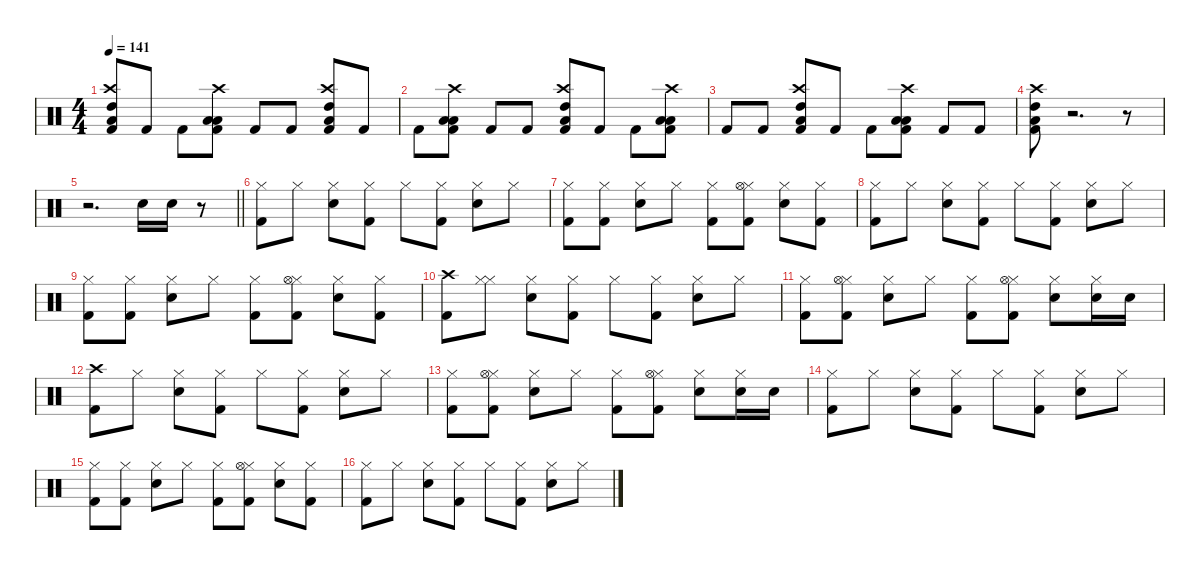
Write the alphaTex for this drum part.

\defaultSystemsLayout 4
\hideDynamics
\bracketExtendMode nobrackets
\singleTrackTrackNamePolicy hidden
\multiTrackTrackNamePolicy hidden
\otherSystemsTrackNameOrientation horizontal
\track ("Drum" "drm.") {instrument percussion}
\staff {score}
\articulation defaults
\ts (4 4)
\tempo 141
\clef neutral
\ks c
("Kick (hit) 2" "High Tom (hit)" "Low Tom (hit)" "Crash high (hit)").8{dy fff beam Up} "Kick (hit) 2".8{dy ff beam Up} "Kick (hit) 2".8{beam Down} ("Kick (hit) 2" "Low Tom (hit)" "Low Floor Tom (hit)" "Crash high (hit)").8{dy fff beam Down} "Kick (hit) 2".8{dy ff beam Up} "Kick (hit) 2".8{beam Up} ("Kick (hit) 2" "High Tom (hit)" "Crash high (hit)" "Low Tom (hit)").8{dy fff beam Up} "Kick (hit) 2".8{dy ff beam Up} |
"Kick (hit) 2".8{beam Down} ("Kick (hit) 2" "Low Tom (hit)" "Low Floor Tom (hit)" "Crash high (hit)").8{dy fff beam Down} "Kick (hit) 2".8{dy ff beam Up} "Kick (hit) 2".8{beam Up} ("High Tom (hit)" "Kick (hit) 2" "Low Tom (hit)" "Crash high (hit)").8{dy fff beam Up} "Kick (hit) 2".8{dy ff beam Up} "Kick (hit) 2".8{beam Down} ("Kick (hit) 2" "Low Tom (hit)" "Low Floor Tom (hit)" "Crash high (hit)").8{dy fff beam Down} |
"Kick (hit) 2".8{dy ff beam Up} "Kick (hit) 2".8{beam Up} ("Kick (hit) 2" "High Tom (hit)" "Low Tom (hit)" "Crash high (hit)").8{dy fff beam Up} "Kick (hit) 2".8{dy ff beam Up} "Kick (hit) 2".8{beam Down} ("Kick (hit) 2" "Low Tom (hit)" "Low Floor Tom (hit)" "Crash high (hit)").8{dy fff beam Down} "Kick (hit) 2".8{dy ff beam Up} "Kick (hit) 2".8{beam Up} |
("Kick (hit) 2" "High Tom (hit)" "Low Tom (hit)" "Crash high (hit)").8{dy fff beam Down} r.2{d beam Down} r.8{beam Down} |
\barLineRight lightlight
r.2{d beam Down} "Snare (hit) 2".16{beam Down} "Snare (hit) 2".16{beam Down} r.8{beam Down} |
("Hi-Hat (closed)" "Kick (hit) 2").8{beam Down} "Hi-Hat (closed)".8{dy f beam Down} ("Hi-Hat (closed)" "Snare (hit) 2").8{dy fff beam Down} ("Hi-Hat (closed)" "Kick (hit) 2").8{beam Down} "Hi-Hat (closed)".8{beam Down} ("Hi-Hat (closed)" "Kick (hit) 2").8{dy f beam Down} ("Hi-Hat (closed)" "Snare (hit) 2").8{dy fff beam Down} "Hi-Hat (closed)".8{dy f beam Down} |
("Hi-Hat (closed)" "Kick (hit) 2").8{dy fff beam Down} ("Hi-Hat (closed)" "Kick (hit) 2").8{beam Down} ("Hi-Hat (closed)" "Snare (hit) 2").8{beam Down} "Hi-Hat (closed)".8{dy f beam Down} ("Hi-Hat (closed)" "Kick (hit) 2").8{dy fff beam Down} ("Hi-Hat (closed)" "Kick (hit) 2" "Hi-Hat (open)").8{beam Down} ("Hi-Hat (closed)" "Snare (hit) 2").8{beam Down} ("Hi-Hat (closed)" "Kick (hit) 2").8{dy f beam Down} |
("Hi-Hat (closed)" "Kick (hit) 2").8{dy fff beam Down} "Hi-Hat (closed)".8{dy f beam Down} ("Hi-Hat (closed)" "Snare (hit) 2").8{dy fff beam Down} ("Hi-Hat (closed)" "Kick (hit) 2").8{beam Down} "Hi-Hat (closed)".8{beam Down} ("Hi-Hat (closed)" "Kick (hit) 2").8{dy f beam Down} ("Hi-Hat (closed)" "Snare (hit) 2").8{dy fff beam Down} "Hi-Hat (closed)".8{dy f beam Down} |
("Hi-Hat (closed)" "Kick (hit) 2").8{dy fff beam Down} ("Hi-Hat (closed)" "Kick (hit) 2").8{beam Down} ("Hi-Hat (closed)" "Snare (hit) 2").8{beam Down} "Hi-Hat (closed)".8{dy f beam Down} ("Hi-Hat (closed)" "Kick (hit) 2").8{dy fff beam Down} ("Hi-Hat (closed)" "Kick (hit) 2" "Hi-Hat (open)").8{beam Down} ("Hi-Hat (closed)" "Snare (hit) 2").8{beam Down} ("Hi-Hat (closed)" "Kick (hit) 2").8{dy f beam Down} |
("Kick (hit) 2" "Crash high (hit)").8{dy fff beam Down} ("Hi-Hat (closed)" "Hi-Hat (closed)").8{dy f beam Down} ("Snare (hit) 2" "Hi-Hat (closed)").8{dy fff beam Down} ("Kick (hit) 2" "Hi-Hat (closed)").8{dy f beam Down} "Hi-Hat (closed)".8{beam Down} ("Kick (hit) 2" "Hi-Hat (closed)").8{beam Down} ("Snare (hit) 2" "Hi-Hat (closed)").8{dy fff beam Down} "Hi-Hat (closed)".8{dy f beam Down} |
("Kick (hit) 2" "Hi-Hat (closed)").8{dy fff beam Down} ("Kick (hit) 2" "Hi-Hat (closed)" "Hi-Hat (open)").8{beam Down} ("Snare (hit) 2" "Hi-Hat (closed)").8{beam Down} "Hi-Hat (closed)".8{dy f beam Down} ("Kick (hit) 2" "Hi-Hat (closed)").8{dy fff beam Down} ("Kick (hit) 2" "Hi-Hat (closed)" "Hi-Hat (open)").8{dy f beam Down} ("Snare (hit) 2" "Hi-Hat (closed)").8{dy fff beam Down} ("Snare (hit) 2" "Hi-Hat (closed)").16{beam Down} "Snare (hit) 2".16{beam Down} |
("Kick (hit) 2" "Crash high (hit)").8{beam Down} "Hi-Hat (closed)".8{dy f beam Down} ("Snare (hit) 2" "Hi-Hat (closed)").8{dy fff beam Down} ("Kick (hit) 2" "Hi-Hat (closed)").8{beam Down} "Hi-Hat (closed)".8{dy f beam Down} ("Kick (hit) 2" "Hi-Hat (closed)").8{dy fff beam Down} ("Snare (hit) 2" "Hi-Hat (closed)").8{beam Down} "Hi-Hat (closed)".8{dy f beam Down} |
("Hi-Hat (closed)" "Kick (hit) 2").8{dy fff beam Down} ("Hi-Hat (closed)" "Kick (hit) 2" "Hi-Hat (open)").8{beam Down} ("Hi-Hat (closed)" "Snare (hit) 2").8{beam Down} "Hi-Hat (closed)".8{dy f beam Down} ("Hi-Hat (closed)" "Kick (hit) 2").8{dy fff beam Down} ("Hi-Hat (closed)" "Kick (hit) 2" "Hi-Hat (open)").8{beam Down} ("Hi-Hat (closed)" "Snare (hit) 2").8{beam Down} ("Hi-Hat (closed)" "Snare (hit) 2").16{dy f beam Down} "Snare (hit) 2".16{beam Down} |
("Hi-Hat (closed)" "Kick (hit) 2").8{dy fff beam Down} "Hi-Hat (closed)".8{dy f beam Down} ("Hi-Hat (closed)" "Snare (hit) 2").8{dy fff beam Down} ("Hi-Hat (closed)" "Kick (hit) 2").8{beam Down} "Hi-Hat (closed)".8{beam Down} ("Hi-Hat (closed)" "Kick (hit) 2").8{dy f beam Down} ("Hi-Hat (closed)" "Snare (hit) 2").8{dy fff beam Down} "Hi-Hat (closed)".8{dy f beam Down} |
("Hi-Hat (closed)" "Kick (hit) 2").8{dy fff beam Down} ("Hi-Hat (closed)" "Kick (hit) 2").8{beam Down} ("Hi-Hat (closed)" "Snare (hit) 2").8{beam Down} "Hi-Hat (closed)".8{dy f beam Down} ("Hi-Hat (closed)" "Kick (hit) 2").8{dy fff beam Down} ("Hi-Hat (closed)" "Kick (hit) 2" "Hi-Hat (open)").8{beam Down} ("Hi-Hat (closed)" "Snare (hit) 2").8{beam Down} ("Hi-Hat (closed)" "Kick (hit) 2").8{dy f beam Down} |
("Hi-Hat (closed)" "Kick (hit) 2").8{dy fff beam Down} "Hi-Hat (closed)".8{dy f beam Down} ("Hi-Hat (closed)" "Snare (hit) 2").8{dy fff beam Down} ("Hi-Hat (closed)" "Kick (hit) 2").8{beam Down} "Hi-Hat (closed)".8{beam Down} ("Hi-Hat (closed)" "Kick (hit) 2").8{dy f beam Down} ("Hi-Hat (closed)" "Snare (hit) 2").8{dy fff beam Down} "Hi-Hat (closed)".8{dy f beam Down}
